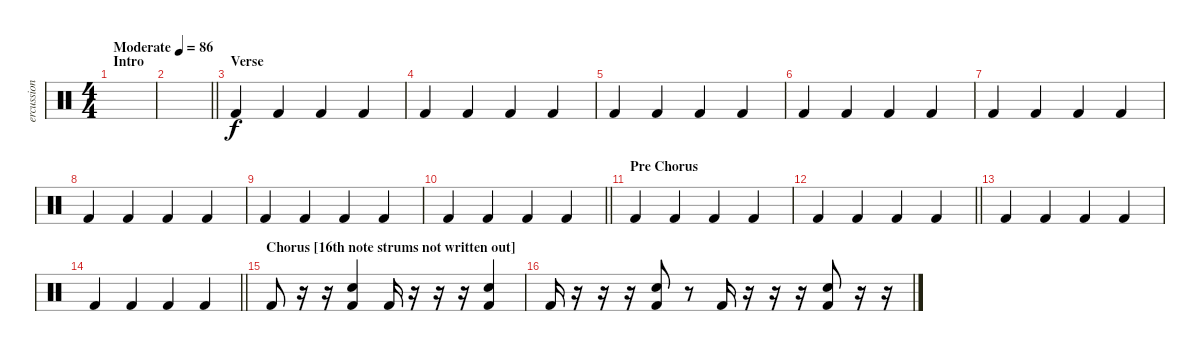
\track ("ercussion" "ercussion") {instrument percussion}
\staff {score}
\articulation defaults
\ts (4 4)
\section ("" "Intro")
\tempo (86 "Moderate")
\clef neutral
\ks c
|
\barLineRight lightlight
|
\section ("" "Verse")
"Kick (hit) 2".4 "Kick (hit) 2".4 "Kick (hit) 2".4 "Kick (hit) 2".4 |
"Kick (hit) 2".4 "Kick (hit) 2".4 "Kick (hit) 2".4 "Kick (hit) 2".4 |
"Kick (hit) 2".4 "Kick (hit) 2".4 "Kick (hit) 2".4 "Kick (hit) 2".4 |
"Kick (hit) 2".4 "Kick (hit) 2".4 "Kick (hit) 2".4 "Kick (hit) 2".4 |
"Kick (hit) 2".4 "Kick (hit) 2".4 "Kick (hit) 2".4 "Kick (hit) 2".4 |
"Kick (hit) 2".4 "Kick (hit) 2".4 "Kick (hit) 2".4 "Kick (hit) 2".4 |
"Kick (hit) 2".4 "Kick (hit) 2".4 "Kick (hit) 2".4 "Kick (hit) 2".4 |
\barLineRight lightlight "Kick (hit) 2".4 "Kick (hit) 2".4 "Kick (hit) 2".4 "Kick (hit) 2".4
|
\section ("" "Pre Chorus")
"Kick (hit) 2".4 "Kick (hit) 2".4 "Kick (hit) 2".4 "Kick (hit) 2".4 |
\barLineRight lightlight "Kick (hit) 2".4 "Kick (hit) 2".4 "Kick (hit) 2".4 "Kick (hit) 2".4
|
"Kick (hit) 2".4 "Kick (hit) 2".4 "Kick (hit) 2".4 "Kick (hit) 2".4 |
\barLineRight lightlight "Kick (hit) 2".4 "Kick (hit) 2".4 "Kick (hit) 2".4 "Kick (hit) 2".4
|
\section ("" "Chorus [16th note strums not written out]")
"Kick (hit) 2".8 r.16 r.16 ("Snare (hit) 2" "Kick (hit) 2").4 "Kick (hit) 2".16 r.16 r.16 r.16 ("Snare (hit) 2" "Kick (hit) 2").4 |
"Kick (hit) 2".16 r.16 r.16 r.16 ("Snare (hit) 2" "Kick (hit) 2").8 r.8 "Kick (hit) 2".16 r.16 r.16 r.16 ("Snare (hit) 2" "Kick (hit) 2").8 r.16 r.16
